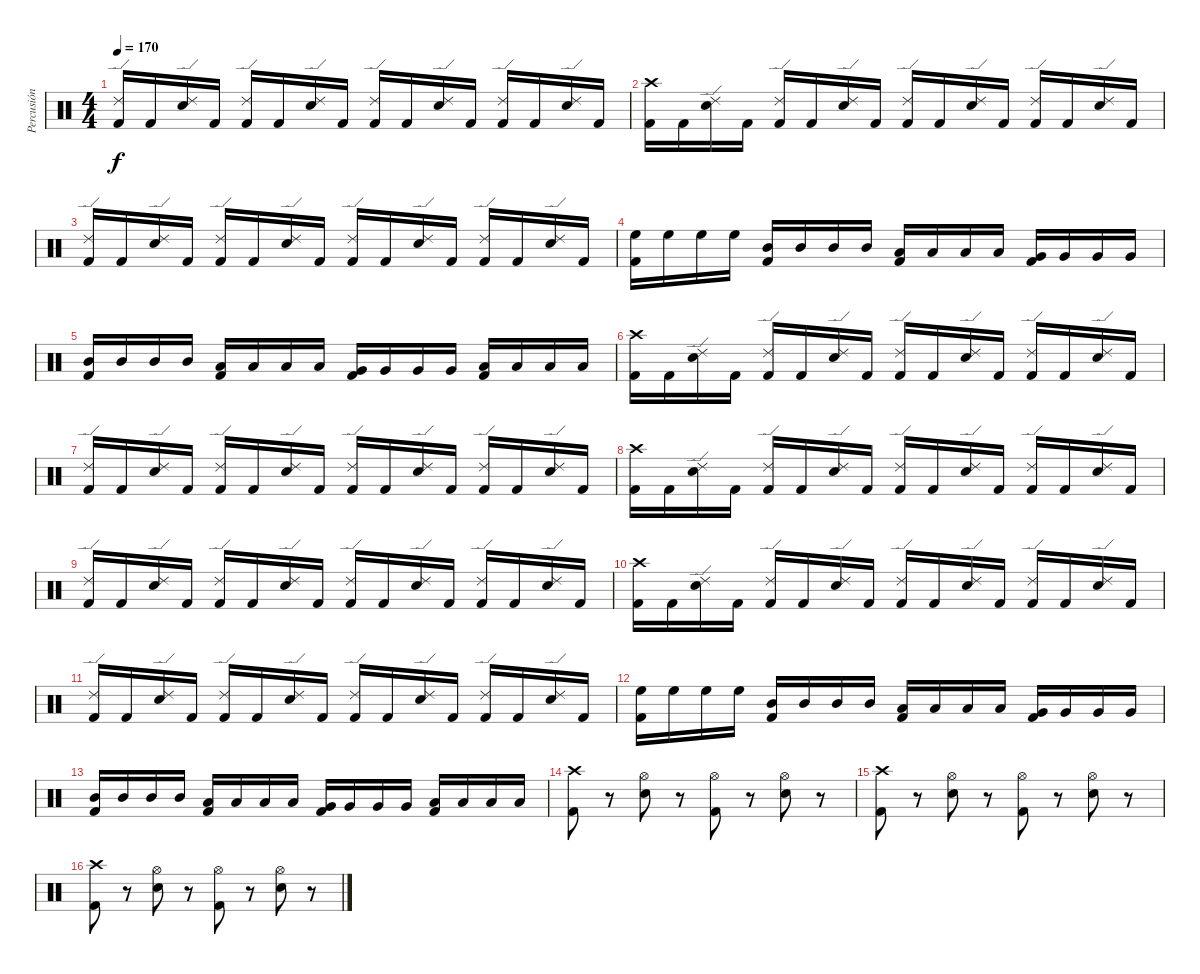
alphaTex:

\track ("Percusión" "Percusión") {instrument percussion}
\staff {score}
\articulation defaults
\ts (4 4)
\tempo 170
\clef neutral
\ks c
("Ride (edge) 2" "Kick (hit) 2").16{dy f} "Kick (hit) 2".16 ("Ride (edge) 2" "Electric Snare (hit)").16 "Kick (hit) 2".16 ("Ride (edge) 2" "Kick (hit) 2").16 "Kick (hit) 2".16 ("Ride (edge) 2" "Electric Snare (hit)").16 "Kick (hit) 2".16 ("Ride (edge) 2" "Kick (hit) 2").16 "Kick (hit) 2".16 ("Ride (edge) 2" "Electric Snare (hit)").16 "Kick (hit) 2".16 ("Ride (edge) 2" "Kick (hit) 2").16 "Kick (hit) 2".16 ("Ride (edge) 2" "Electric Snare (hit)").16 "Kick (hit) 2".16 |
("Crash high (hit)" "Kick (hit) 2").16 "Kick (hit) 2".16 ("Ride (edge) 2" "Electric Snare (hit)").16 "Kick (hit) 2".16 ("Ride (edge) 2" "Kick (hit) 2").16 "Kick (hit) 2".16 ("Ride (edge) 2" "Electric Snare (hit)").16 "Kick (hit) 2".16 ("Ride (edge) 2" "Kick (hit) 2").16 "Kick (hit) 2".16 ("Ride (edge) 2" "Electric Snare (hit)").16 "Kick (hit) 2".16 ("Ride (edge) 2" "Kick (hit) 2").16 "Kick (hit) 2".16 ("Ride (edge) 2" "Electric Snare (hit)").16 "Kick (hit) 2".16 |
("Ride (edge) 2" "Kick (hit) 2").16 "Kick (hit) 2".16 ("Ride (edge) 2" "Electric Snare (hit)").16 "Kick (hit) 2".16 ("Ride (edge) 2" "Kick (hit) 2").16 "Kick (hit) 2".16 ("Ride (edge) 2" "Electric Snare (hit)").16 "Kick (hit) 2".16 ("Ride (edge) 2" "Kick (hit) 2").16 "Kick (hit) 2".16 ("Ride (edge) 2" "Electric Snare (hit)").16 "Kick (hit) 2".16 ("Ride (edge) 2" "Kick (hit) 2").16 "Kick (hit) 2".16 ("Ride (edge) 2" "Electric Snare (hit)").16 "Kick (hit) 2".16 |
("Kick (hit) 2" "High Floor Tom (hit)").16 "High Floor Tom (hit)".16 "High Floor Tom (hit)".16 "High Floor Tom (hit)".16 ("Kick (hit) 2" "Mid Tom (hit)").16 "Mid Tom (hit)".16 "Mid Tom (hit)".16 "Mid Tom (hit)".16 ("Kick (hit) 2" "Low Tom (hit)").16 "Low Tom (hit)".16 "Low Tom (hit)".16 "Low Tom (hit)".16 ("Kick (hit) 2" "Very Low Tom (hit)").16 "Very Low Tom (hit)".16 "Very Low Tom (hit)".16 "Very Low Tom (hit)".16 |
("Kick (hit) 2" "Mid Tom (hit)").16 "Mid Tom (hit)".16 "Mid Tom (hit)".16 "Mid Tom (hit)".16 ("Kick (hit) 2" "Low Tom (hit)").16 "Low Tom (hit)".16 "Low Tom (hit)".16 "Low Tom (hit)".16 ("Kick (hit) 2" "Very Low Tom (hit)").16 "Very Low Tom (hit)".16 "Very Low Tom (hit)".16 "Very Low Tom (hit)".16 ("Kick (hit) 2" "Low Floor Tom (hit)").16 "Low Floor Tom (hit)".16 "Low Floor Tom (hit)".16 "Low Floor Tom (hit)".16 |
("Crash high (hit)" "Kick (hit) 2").16 "Kick (hit) 2".16 ("Ride (edge) 2" "Electric Snare (hit)").16 "Kick (hit) 2".16 ("Ride (edge) 2" "Kick (hit) 2").16 "Kick (hit) 2".16 ("Ride (edge) 2" "Electric Snare (hit)").16 "Kick (hit) 2".16 ("Ride (edge) 2" "Kick (hit) 2").16 "Kick (hit) 2".16 ("Ride (edge) 2" "Electric Snare (hit)").16 "Kick (hit) 2".16 ("Ride (edge) 2" "Kick (hit) 2").16 "Kick (hit) 2".16 ("Ride (edge) 2" "Electric Snare (hit)").16 "Kick (hit) 2".16 |
("Ride (edge) 2" "Kick (hit) 2").16 "Kick (hit) 2".16 ("Ride (edge) 2" "Electric Snare (hit)").16 "Kick (hit) 2".16 ("Ride (edge) 2" "Kick (hit) 2").16 "Kick (hit) 2".16 ("Ride (edge) 2" "Electric Snare (hit)").16 "Kick (hit) 2".16 ("Ride (edge) 2" "Kick (hit) 2").16 "Kick (hit) 2".16 ("Ride (edge) 2" "Electric Snare (hit)").16 "Kick (hit) 2".16 ("Ride (edge) 2" "Kick (hit) 2").16 "Kick (hit) 2".16 ("Ride (edge) 2" "Electric Snare (hit)").16 "Kick (hit) 2".16 |
("Crash high (hit)" "Kick (hit) 2").16 "Kick (hit) 2".16 ("Ride (edge) 2" "Electric Snare (hit)").16 "Kick (hit) 2".16 ("Ride (edge) 2" "Kick (hit) 2").16 "Kick (hit) 2".16 ("Ride (edge) 2" "Electric Snare (hit)").16 "Kick (hit) 2".16 ("Ride (edge) 2" "Kick (hit) 2").16 "Kick (hit) 2".16 ("Ride (edge) 2" "Electric Snare (hit)").16 "Kick (hit) 2".16 ("Ride (edge) 2" "Kick (hit) 2").16 "Kick (hit) 2".16 ("Ride (edge) 2" "Electric Snare (hit)").16 "Kick (hit) 2".16 |
("Ride (edge) 2" "Kick (hit) 2").16 "Kick (hit) 2".16 ("Ride (edge) 2" "Electric Snare (hit)").16 "Kick (hit) 2".16 ("Ride (edge) 2" "Kick (hit) 2").16 "Kick (hit) 2".16 ("Ride (edge) 2" "Electric Snare (hit)").16 "Kick (hit) 2".16 ("Ride (edge) 2" "Kick (hit) 2").16 "Kick (hit) 2".16 ("Ride (edge) 2" "Electric Snare (hit)").16 "Kick (hit) 2".16 ("Ride (edge) 2" "Kick (hit) 2").16 "Kick (hit) 2".16 ("Ride (edge) 2" "Electric Snare (hit)").16 "Kick (hit) 2".16 |
("Crash high (hit)" "Kick (hit) 2").16 "Kick (hit) 2".16 ("Ride (edge) 2" "Electric Snare (hit)").16 "Kick (hit) 2".16 ("Ride (edge) 2" "Kick (hit) 2").16 "Kick (hit) 2".16 ("Ride (edge) 2" "Electric Snare (hit)").16 "Kick (hit) 2".16 ("Ride (edge) 2" "Kick (hit) 2").16 "Kick (hit) 2".16 ("Ride (edge) 2" "Electric Snare (hit)").16 "Kick (hit) 2".16 ("Ride (edge) 2" "Kick (hit) 2").16 "Kick (hit) 2".16 ("Ride (edge) 2" "Electric Snare (hit)").16 "Kick (hit) 2".16 |
("Ride (edge) 2" "Kick (hit) 2").16 "Kick (hit) 2".16 ("Ride (edge) 2" "Electric Snare (hit)").16 "Kick (hit) 2".16 ("Ride (edge) 2" "Kick (hit) 2").16 "Kick (hit) 2".16 ("Ride (edge) 2" "Electric Snare (hit)").16 "Kick (hit) 2".16 ("Ride (edge) 2" "Kick (hit) 2").16 "Kick (hit) 2".16 ("Ride (edge) 2" "Electric Snare (hit)").16 "Kick (hit) 2".16 ("Ride (edge) 2" "Kick (hit) 2").16 "Kick (hit) 2".16 ("Ride (edge) 2" "Electric Snare (hit)").16 "Kick (hit) 2".16 |
("Kick (hit) 2" "High Floor Tom (hit)").16 "High Floor Tom (hit)".16 "High Floor Tom (hit)".16 "High Floor Tom (hit)".16 ("Kick (hit) 2" "Mid Tom (hit)").16 "Mid Tom (hit)".16 "Mid Tom (hit)".16 "Mid Tom (hit)".16 ("Kick (hit) 2" "Low Tom (hit)").16 "Low Tom (hit)".16 "Low Tom (hit)".16 "Low Tom (hit)".16 ("Kick (hit) 2" "Very Low Tom (hit)").16 "Very Low Tom (hit)".16 "Very Low Tom (hit)".16 "Very Low Tom (hit)".16 |
("Kick (hit) 2" "Mid Tom (hit)").16 "Mid Tom (hit)".16 "Mid Tom (hit)".16 "Mid Tom (hit)".16 ("Kick (hit) 2" "Low Tom (hit)").16 "Low Tom (hit)".16 "Low Tom (hit)".16 "Low Tom (hit)".16 ("Kick (hit) 2" "Very Low Tom (hit)").16 "Very Low Tom (hit)".16 "Very Low Tom (hit)".16 "Very Low Tom (hit)".16 ("Kick (hit) 2" "Low Floor Tom (hit)").16 "Low Floor Tom (hit)".16 "Low Floor Tom (hit)".16 "Low Floor Tom (hit)".16 |
("Crash high (hit)" "Kick (hit) 2").8 r.8 ("Hi-Hat (open)" "Electric Snare (hit)").8 r.8 ("Hi-Hat (open)" "Kick (hit) 2").8 r.8 ("Hi-Hat (open)" "Electric Snare (hit)").8 r.8 |
("Crash high (hit)" "Kick (hit) 2").8 r.8 ("Hi-Hat (open)" "Electric Snare (hit)").8 r.8 ("Hi-Hat (open)" "Kick (hit) 2").8 r.8 ("Hi-Hat (open)" "Electric Snare (hit)").8 r.8 |
("Crash high (hit)" "Kick (hit) 2").8 r.8 ("Hi-Hat (open)" "Electric Snare (hit)").8 r.8 ("Hi-Hat (open)" "Kick (hit) 2").8 r.8 ("Hi-Hat (open)" "Electric Snare (hit)").8 r.8
